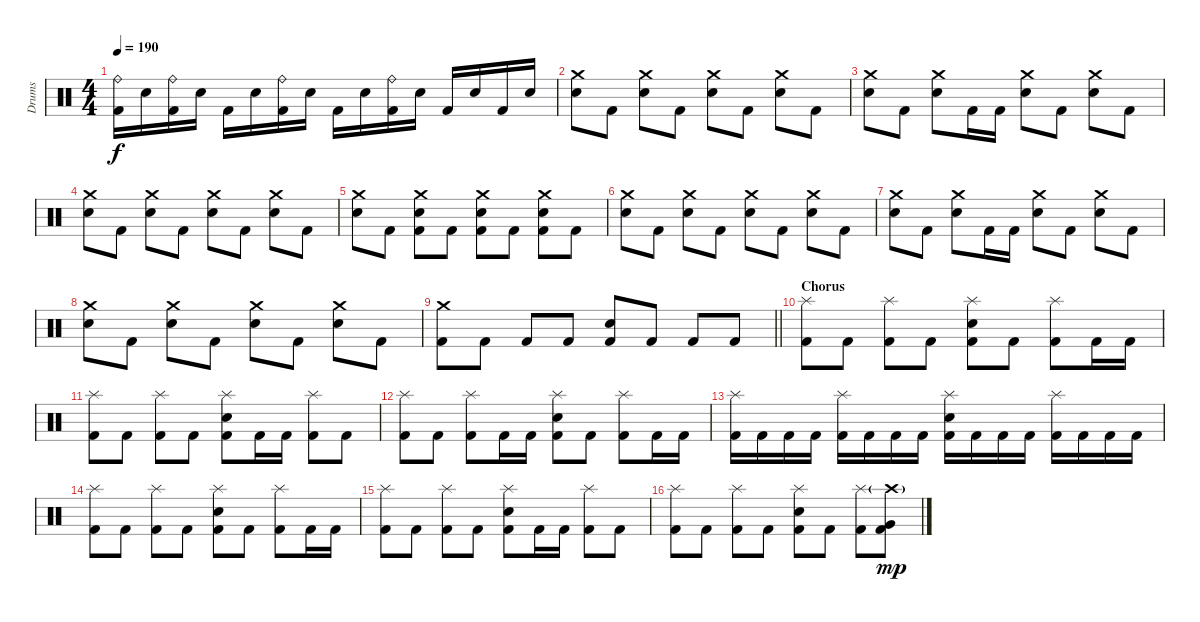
\track ("Drums" "Drums") {instrument percussion}
\staff {score}
\articulation defaults
\ts (4 4)
\tempo 190
\clef neutral
\ks c
("Ride (bell)" "Kick (hit) 2").16{dy f} "Snare (hit) 2".16 ("Ride (bell)" "Kick (hit) 2").16 "Snare (hit) 2".16 "Kick (hit) 2".16 "Snare (hit) 2".16 ("Ride (bell)" "Kick (hit) 2").16 "Snare (hit) 2".16 "Kick (hit) 2".16 "Snare (hit) 2".16 ("Ride (bell)" "Kick (hit) 2").16 "Snare (hit) 2".16 "Kick (hit) 2".16 "Snare (hit) 2".16 "Kick (hit) 2".16 "Snare (hit) 2".16 |
("Crash medium (hit)" "Snare (hit) 2").8 "Kick (hit) 2".8 ("Crash medium (hit)" "Snare (hit) 2").8 "Kick (hit) 2".8 ("Crash medium (hit)" "Snare (hit) 2").8 "Kick (hit) 2".8 ("Crash medium (hit)" "Snare (hit) 2").8 "Kick (hit) 2".8 |
("Crash medium (hit)" "Snare (hit) 2").8 "Kick (hit) 2".8 ("Crash medium (hit)" "Snare (hit) 2").8 "Kick (hit) 2".16 "Kick (hit) 2".16 ("Crash medium (hit)" "Snare (hit) 2").8 "Kick (hit) 2".8 ("Crash medium (hit)" "Snare (hit) 2").8 "Kick (hit) 2".8 |
("Crash medium (hit)" "Snare (hit) 2").8 "Kick (hit) 2".8 ("Crash medium (hit)" "Snare (hit) 2").8 "Kick (hit) 2".8 ("Crash medium (hit)" "Snare (hit) 2").8 "Kick (hit) 2".8 ("Crash medium (hit)" "Snare (hit) 2").8 "Kick (hit) 2".8 |
("Crash medium (hit)" "Snare (hit) 2").8 "Kick (hit) 2".8 ("Crash medium (hit)" "Snare (hit) 2" "Kick (hit) 2").8 "Kick (hit) 2".8 ("Crash medium (hit)" "Snare (hit) 2" "Kick (hit) 2").8 "Kick (hit) 2".8 ("Crash medium (hit)" "Snare (hit) 2" "Kick (hit) 2").8 "Kick (hit) 2".8 |
("Crash medium (hit)" "Snare (hit) 2").8 "Kick (hit) 2".8 ("Crash medium (hit)" "Snare (hit) 2").8 "Kick (hit) 2".8 ("Crash medium (hit)" "Snare (hit) 2").8 "Kick (hit) 2".8 ("Crash medium (hit)" "Snare (hit) 2").8 "Kick (hit) 2".8 |
("Crash medium (hit)" "Snare (hit) 2").8 "Kick (hit) 2".8 ("Crash medium (hit)" "Snare (hit) 2").8 "Kick (hit) 2".16 "Kick (hit) 2".16 ("Crash medium (hit)" "Snare (hit) 2").8 "Kick (hit) 2".8 ("Crash medium (hit)" "Snare (hit) 2").8 "Kick (hit) 2".8 |
("Crash medium (hit)" "Snare (hit) 2").8 "Kick (hit) 2".8 ("Crash medium (hit)" "Snare (hit) 2").8 "Kick (hit) 2".8 ("Crash medium (hit)" "Snare (hit) 2").8 "Kick (hit) 2".8 ("Crash medium (hit)" "Snare (hit) 2").8 "Kick (hit) 2".8 |
\barLineRight lightlight
("Crash medium (hit)" "Kick (hit) 2").8 "Kick (hit) 2".8 "Kick (hit) 2".8 "Kick (hit) 2".8 ("Snare (hit) 2" "Kick (hit) 2").8 "Kick (hit) 2".8 "Kick (hit) 2".8 "Kick (hit) 2".8 |
\section ("" "Chorus")
("Splash (hit)" "Kick (hit) 2").8 "Kick (hit) 2".8 ("Splash (hit)" "Kick (hit) 2").8 "Kick (hit) 2".8 ("Splash (hit)" "Snare (hit) 2" "Kick (hit) 2").8 "Kick (hit) 2".8 ("Splash (hit)" "Kick (hit) 2").8 "Kick (hit) 2".16 "Kick (hit) 2".16 |
("Splash (hit)" "Kick (hit) 2").8 "Kick (hit) 2".8 ("Splash (hit)" "Kick (hit) 2").8 "Kick (hit) 2".8 ("Splash (hit)" "Snare (hit) 2" "Kick (hit) 2").8 "Kick (hit) 2".16 "Kick (hit) 2".16 ("Splash (hit)" "Kick (hit) 2").8 "Kick (hit) 2".8 |
("Splash (hit)" "Kick (hit) 2").8 "Kick (hit) 2".8 ("Splash (hit)" "Kick (hit) 2").8 "Kick (hit) 2".16 "Kick (hit) 2".16 ("Splash (hit)" "Snare (hit) 2" "Kick (hit) 2").8 "Kick (hit) 2".8 ("Splash (hit)" "Kick (hit) 2").8 "Kick (hit) 2".16 "Kick (hit) 2".16 |
("Splash (hit)" "Kick (hit) 2").16 "Kick (hit) 2".16 "Kick (hit) 2".16 "Kick (hit) 2".16 ("Splash (hit)" "Kick (hit) 2").16 "Kick (hit) 2".16 "Kick (hit) 2".16 "Kick (hit) 2".16 ("Splash (hit)" "Snare (hit) 2" "Kick (hit) 2").16 "Kick (hit) 2".16 "Kick (hit) 2".16 "Kick (hit) 2".16 ("Splash (hit)" "Kick (hit) 2").16 "Kick (hit) 2".16 "Kick (hit) 2".16 "Kick (hit) 2".16 |
("Splash (hit)" "Kick (hit) 2").8 "Kick (hit) 2".8 ("Splash (hit)" "Kick (hit) 2").8 "Kick (hit) 2".8 ("Splash (hit)" "Snare (hit) 2" "Kick (hit) 2").8 "Kick (hit) 2".8 ("Splash (hit)" "Kick (hit) 2").8 "Kick (hit) 2".16 "Kick (hit) 2".16 |
("Splash (hit)" "Kick (hit) 2").8 "Kick (hit) 2".8 ("Splash (hit)" "Kick (hit) 2").8 "Kick (hit) 2".8 ("Splash (hit)" "Snare (hit) 2" "Kick (hit) 2").8 "Kick (hit) 2".16 "Kick (hit) 2".16 ("Splash (hit)" "Kick (hit) 2").8 "Kick (hit) 2".8 |
("Splash (hit)" "Kick (hit) 2").8 "Kick (hit) 2".8 ("Splash (hit)" "Kick (hit) 2").8 "Kick (hit) 2".8 ("Splash (hit)" "Snare (hit) 2" "Kick (hit) 2").8 "Kick (hit) 2".8 ("Splash (hit)" "Kick (hit) 2").8 ("Crash high (hit)"{g} "Very Low Tom (hit)" "Kick (hit) 2").8{dy mp}
